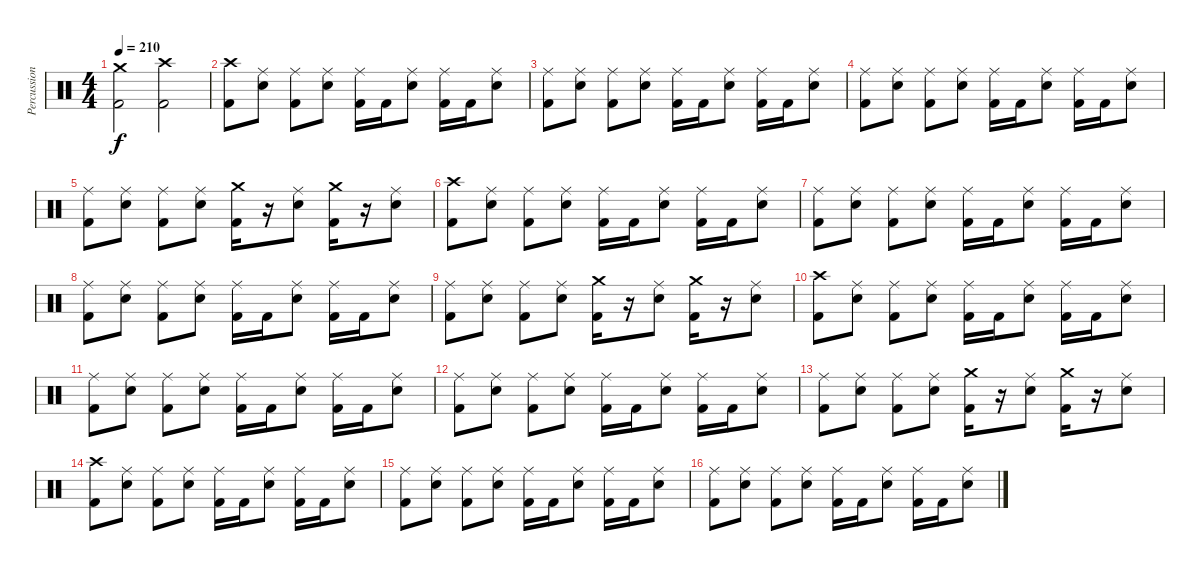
\track ("Percussions" "Percussion") {instrument percussion}
\staff {score}
\articulation defaults
\ts (4 4)
\tempo 210
\clef neutral
\ks c
("Kick (hit) 2" "Crash medium (hit)").2{dy f} ("Kick (hit) 2" "Crash high (hit)").2 |
("Kick (hit) 2" "Crash high (hit)").8 ("Electric Snare (hit)" "Ride (middle)").8 ("Kick (hit) 2" "Ride (middle)").8 ("Electric Snare (hit)" "Ride (middle)").8 ("Kick (hit) 2" "Ride (middle)").16 "Kick (hit) 2".16 ("Electric Snare (hit)" "Ride (middle)").8 ("Kick (hit) 2" "Ride (middle)").16 "Kick (hit) 2".16 ("Electric Snare (hit)" "Ride (middle)").8 |
("Kick (hit) 2" "Ride (middle)").8 ("Electric Snare (hit)" "Ride (middle)").8 ("Kick (hit) 2" "Ride (middle)").8 ("Electric Snare (hit)" "Ride (middle)").8 ("Kick (hit) 2" "Ride (middle)").16 "Kick (hit) 2".16 ("Electric Snare (hit)" "Ride (middle)").8 ("Kick (hit) 2" "Ride (middle)").16 "Kick (hit) 2".16 ("Electric Snare (hit)" "Ride (middle)").8 |
("Kick (hit) 2" "Ride (middle)").8 ("Electric Snare (hit)" "Ride (middle)").8 ("Kick (hit) 2" "Ride (middle)").8 ("Electric Snare (hit)" "Ride (middle)").8 ("Kick (hit) 2" "Ride (middle)").16 "Kick (hit) 2".16 ("Electric Snare (hit)" "Ride (middle)").8 ("Kick (hit) 2" "Ride (middle)").16 "Kick (hit) 2".16 ("Electric Snare (hit)" "Ride (middle)").8 |
("Kick (hit) 2" "Ride (middle)").8 ("Electric Snare (hit)" "Ride (middle)").8 ("Kick (hit) 2" "Ride (middle)").8 ("Electric Snare (hit)" "Ride (middle)").8 ("Kick (hit) 2" "Crash medium (hit)").16 r.16 ("Electric Snare (hit)" "Ride (middle)").8 ("Kick (hit) 2" "Crash medium (hit)").16 r.16 ("Electric Snare (hit)" "Ride (middle)").8 |
("Kick (hit) 2" "Crash high (hit)").8 ("Electric Snare (hit)" "Ride (middle)").8 ("Kick (hit) 2" "Ride (middle)").8 ("Electric Snare (hit)" "Ride (middle)").8 ("Kick (hit) 2" "Ride (middle)").16 "Kick (hit) 2".16 ("Electric Snare (hit)" "Ride (middle)").8 ("Kick (hit) 2" "Ride (middle)").16 "Kick (hit) 2".16 ("Electric Snare (hit)" "Ride (middle)").8 |
("Kick (hit) 2" "Ride (middle)").8 ("Electric Snare (hit)" "Ride (middle)").8 ("Kick (hit) 2" "Ride (middle)").8 ("Electric Snare (hit)" "Ride (middle)").8 ("Kick (hit) 2" "Ride (middle)").16 "Kick (hit) 2".16 ("Electric Snare (hit)" "Ride (middle)").8 ("Kick (hit) 2" "Ride (middle)").16 "Kick (hit) 2".16 ("Electric Snare (hit)" "Ride (middle)").8 |
("Kick (hit) 2" "Ride (middle)").8 ("Electric Snare (hit)" "Ride (middle)").8 ("Kick (hit) 2" "Ride (middle)").8 ("Electric Snare (hit)" "Ride (middle)").8 ("Kick (hit) 2" "Ride (middle)").16 "Kick (hit) 2".16 ("Electric Snare (hit)" "Ride (middle)").8 ("Kick (hit) 2" "Ride (middle)").16 "Kick (hit) 2".16 ("Electric Snare (hit)" "Ride (middle)").8 |
("Kick (hit) 2" "Ride (middle)").8 ("Electric Snare (hit)" "Ride (middle)").8 ("Kick (hit) 2" "Ride (middle)").8 ("Electric Snare (hit)" "Ride (middle)").8 ("Kick (hit) 2" "Crash medium (hit)").16 r.16 ("Electric Snare (hit)" "Ride (middle)").8 ("Kick (hit) 2" "Crash medium (hit)").16 r.16 ("Electric Snare (hit)" "Ride (middle)").8 |
("Kick (hit) 2" "Crash high (hit)").8 ("Electric Snare (hit)" "Ride (middle)").8 ("Kick (hit) 2" "Ride (middle)").8 ("Electric Snare (hit)" "Ride (middle)").8 ("Kick (hit) 2" "Ride (middle)").16 "Kick (hit) 2".16 ("Electric Snare (hit)" "Ride (middle)").8 ("Kick (hit) 2" "Ride (middle)").16 "Kick (hit) 2".16 ("Electric Snare (hit)" "Ride (middle)").8 |
("Kick (hit) 2" "Ride (middle)").8 ("Electric Snare (hit)" "Ride (middle)").8 ("Kick (hit) 2" "Ride (middle)").8 ("Electric Snare (hit)" "Ride (middle)").8 ("Kick (hit) 2" "Ride (middle)").16 "Kick (hit) 2".16 ("Electric Snare (hit)" "Ride (middle)").8 ("Kick (hit) 2" "Ride (middle)").16 "Kick (hit) 2".16 ("Electric Snare (hit)" "Ride (middle)").8 |
("Kick (hit) 2" "Ride (middle)").8 ("Electric Snare (hit)" "Ride (middle)").8 ("Kick (hit) 2" "Ride (middle)").8 ("Electric Snare (hit)" "Ride (middle)").8 ("Kick (hit) 2" "Ride (middle)").16 "Kick (hit) 2".16 ("Electric Snare (hit)" "Ride (middle)").8 ("Kick (hit) 2" "Ride (middle)").16 "Kick (hit) 2".16 ("Electric Snare (hit)" "Ride (middle)").8 |
("Kick (hit) 2" "Ride (middle)").8 ("Electric Snare (hit)" "Ride (middle)").8 ("Kick (hit) 2" "Ride (middle)").8 ("Electric Snare (hit)" "Ride (middle)").8 ("Kick (hit) 2" "Crash medium (hit)").16 r.16 ("Electric Snare (hit)" "Ride (middle)").8 ("Kick (hit) 2" "Crash medium (hit)").16 r.16 ("Electric Snare (hit)" "Ride (middle)").8 |
("Kick (hit) 2" "Crash high (hit)").8 ("Electric Snare (hit)" "Ride (middle)").8 ("Kick (hit) 2" "Ride (middle)").8 ("Electric Snare (hit)" "Ride (middle)").8 ("Kick (hit) 2" "Ride (middle)").16 "Kick (hit) 2".16 ("Electric Snare (hit)" "Ride (middle)").8 ("Kick (hit) 2" "Ride (middle)").16 "Kick (hit) 2".16 ("Electric Snare (hit)" "Ride (middle)").8 |
("Kick (hit) 2" "Ride (middle)").8 ("Electric Snare (hit)" "Ride (middle)").8 ("Kick (hit) 2" "Ride (middle)").8 ("Electric Snare (hit)" "Ride (middle)").8 ("Kick (hit) 2" "Ride (middle)").16 "Kick (hit) 2".16 ("Electric Snare (hit)" "Ride (middle)").8 ("Kick (hit) 2" "Ride (middle)").16 "Kick (hit) 2".16 ("Electric Snare (hit)" "Ride (middle)").8 |
("Kick (hit) 2" "Ride (middle)").8 ("Electric Snare (hit)" "Ride (middle)").8 ("Kick (hit) 2" "Ride (middle)").8 ("Electric Snare (hit)" "Ride (middle)").8 ("Kick (hit) 2" "Ride (middle)").16 "Kick (hit) 2".16 ("Electric Snare (hit)" "Ride (middle)").8 ("Kick (hit) 2" "Ride (middle)").16 "Kick (hit) 2".16 ("Electric Snare (hit)" "Ride (middle)").8
